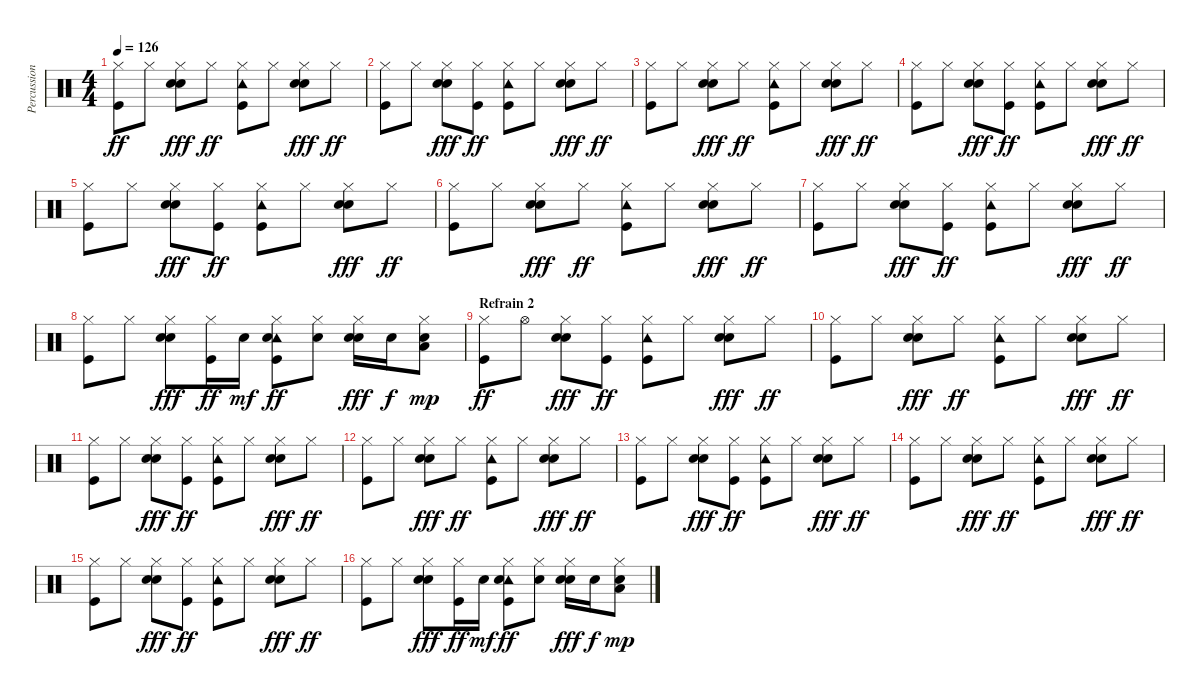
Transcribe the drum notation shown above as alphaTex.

\track ("Percussions" "Percussion") {instrument percussion}
\staff {score}
\articulation defaults
\ts (4 4)
\tempo 126
\clef neutral
\ks c
("Hi-Hat (closed)" "Kick (hit)").8{dy ff} "Hi-Hat (closed)".8 ("Hi-Hat (closed)" "Hand Clap (hit)" "Electric Snare (hit)").8{dy fff} "Hi-Hat (closed)".8{dy ff} ("Hi-Hat (closed)" "Tambourine (hit)" "Kick (hit)").8 "Hi-Hat (closed)".8 ("Hi-Hat (closed)" "Hand Clap (hit)" "Electric Snare (hit)").8{dy fff} "Hi-Hat (closed)".8{dy ff} |
("Hi-Hat (closed)" "Kick (hit)").8 "Hi-Hat (closed)".8 ("Hi-Hat (closed)" "Hand Clap (hit)" "Electric Snare (hit)").8{dy fff} ("Hi-Hat (closed)" "Kick (hit)").8{dy ff} ("Hi-Hat (closed)" "Tambourine (hit)" "Kick (hit)").8 "Hi-Hat (closed)".8 ("Hi-Hat (closed)" "Hand Clap (hit)" "Electric Snare (hit)").8{dy fff} "Hi-Hat (closed)".8{dy ff} |
("Hi-Hat (closed)" "Kick (hit)").8 "Hi-Hat (closed)".8 ("Hi-Hat (closed)" "Hand Clap (hit)" "Electric Snare (hit)").8{dy fff} "Hi-Hat (closed)".8{dy ff} ("Hi-Hat (closed)" "Tambourine (hit)" "Kick (hit)").8 "Hi-Hat (closed)".8 ("Hi-Hat (closed)" "Hand Clap (hit)" "Electric Snare (hit)").8{dy fff} "Hi-Hat (closed)".8{dy ff} |
("Hi-Hat (closed)" "Kick (hit)").8 "Hi-Hat (closed)".8 ("Hi-Hat (closed)" "Hand Clap (hit)" "Electric Snare (hit)").8{dy fff} ("Hi-Hat (closed)" "Kick (hit)").8{dy ff} ("Hi-Hat (closed)" "Tambourine (hit)" "Kick (hit)").8 "Hi-Hat (closed)".8 ("Hi-Hat (closed)" "Hand Clap (hit)" "Electric Snare (hit)").8{dy fff} "Hi-Hat (closed)".8{dy ff} |
("Hi-Hat (closed)" "Kick (hit)").8 "Hi-Hat (closed)".8 ("Hi-Hat (closed)" "Hand Clap (hit)" "Electric Snare (hit)").8{dy fff} ("Hi-Hat (closed)" "Kick (hit)").8{dy ff} ("Hi-Hat (closed)" "Tambourine (hit)" "Kick (hit)").8 "Hi-Hat (closed)".8 ("Hi-Hat (closed)" "Hand Clap (hit)" "Electric Snare (hit)").8{dy fff} "Hi-Hat (closed)".8{dy ff} |
("Hi-Hat (closed)" "Kick (hit)").8 "Hi-Hat (closed)".8 ("Hi-Hat (closed)" "Hand Clap (hit)" "Electric Snare (hit)").8{dy fff} "Hi-Hat (closed)".8{dy ff} ("Hi-Hat (closed)" "Tambourine (hit)" "Kick (hit)").8 "Hi-Hat (closed)".8 ("Hi-Hat (closed)" "Hand Clap (hit)" "Electric Snare (hit)").8{dy fff} "Hi-Hat (closed)".8{dy ff} |
("Hi-Hat (closed)" "Kick (hit)").8 "Hi-Hat (closed)".8 ("Hi-Hat (closed)" "Hand Clap (hit)" "Electric Snare (hit)").8{dy fff} ("Hi-Hat (closed)" "Kick (hit)").8{dy ff} ("Hi-Hat (closed)" "Tambourine (hit)" "Kick (hit)").8 "Hi-Hat (closed)".8 ("Hi-Hat (closed)" "Hand Clap (hit)" "Electric Snare (hit)").8{dy fff} "Hi-Hat (closed)".8{dy ff} |
("Hi-Hat (closed)" "Kick (hit)").8 "Hi-Hat (closed)".8 ("Hi-Hat (closed)" "Hand Clap (hit)" "Electric Snare (hit)").8{dy fff} ("Hi-Hat (closed)" "Kick (hit)").16{dy ff} "Electric Snare (hit)".16{dy mf} ("Hi-Hat (closed)" "Tambourine (hit)" "Electric Snare (hit)" "Kick (hit)").8{dy ff} ("Hi-Hat (closed)" "Electric Snare (hit)").8 ("Hi-Hat (closed)" "Hand Clap (hit)" "Electric Snare (hit)").16{dy fff} "Electric Snare (hit)".16{dy f} ("Hi-Hat (closed)" "Low Tom (hit)" "Electric Snare (hit)").8{dy mp} |
\section ("" "Refrain 2")
("Hi-Hat (closed)" "Kick (hit)").8{dy ff} "Hi-Hat (open)".8 ("Hi-Hat (closed)" "Hand Clap (hit)" "Electric Snare (hit)").8{dy fff} ("Hi-Hat (closed)" "Kick (hit)").8{dy ff} ("Hi-Hat (closed)" "Tambourine (hit)" "Kick (hit)").8 "Hi-Hat (closed)".8 ("Hi-Hat (closed)" "Hand Clap (hit)" "Electric Snare (hit)").8{dy fff} "Hi-Hat (closed)".8{dy ff} |
("Hi-Hat (closed)" "Kick (hit)").8 "Hi-Hat (closed)".8 ("Hi-Hat (closed)" "Hand Clap (hit)" "Electric Snare (hit)").8{dy fff} "Hi-Hat (closed)".8{dy ff} ("Hi-Hat (closed)" "Tambourine (hit)" "Kick (hit)").8 "Hi-Hat (closed)".8 ("Hi-Hat (closed)" "Hand Clap (hit)" "Electric Snare (hit)").8{dy fff} "Hi-Hat (closed)".8{dy ff} |
("Hi-Hat (closed)" "Kick (hit)").8 "Hi-Hat (closed)".8 ("Hi-Hat (closed)" "Hand Clap (hit)" "Electric Snare (hit)").8{dy fff} ("Hi-Hat (closed)" "Kick (hit)").8{dy ff} ("Hi-Hat (closed)" "Tambourine (hit)" "Kick (hit)").8 "Hi-Hat (closed)".8 ("Hi-Hat (closed)" "Hand Clap (hit)" "Electric Snare (hit)").8{dy fff} "Hi-Hat (closed)".8{dy ff} |
("Hi-Hat (closed)" "Kick (hit)").8 "Hi-Hat (closed)".8 ("Hi-Hat (closed)" "Hand Clap (hit)" "Electric Snare (hit)").8{dy fff} "Hi-Hat (closed)".8{dy ff} ("Hi-Hat (closed)" "Tambourine (hit)" "Kick (hit)").8 "Hi-Hat (closed)".8 ("Hi-Hat (closed)" "Hand Clap (hit)" "Electric Snare (hit)").8{dy fff} "Hi-Hat (closed)".8{dy ff} |
("Hi-Hat (closed)" "Kick (hit)").8 "Hi-Hat (closed)".8 ("Hi-Hat (closed)" "Hand Clap (hit)" "Electric Snare (hit)").8{dy fff} ("Hi-Hat (closed)" "Kick (hit)").8{dy ff} ("Hi-Hat (closed)" "Tambourine (hit)" "Kick (hit)").8 "Hi-Hat (closed)".8 ("Hi-Hat (closed)" "Hand Clap (hit)" "Electric Snare (hit)").8{dy fff} "Hi-Hat (closed)".8{dy ff} |
("Hi-Hat (closed)" "Kick (hit)").8 "Hi-Hat (closed)".8 ("Hi-Hat (closed)" "Hand Clap (hit)" "Electric Snare (hit)").8{dy fff} "Hi-Hat (closed)".8{dy ff} ("Hi-Hat (closed)" "Tambourine (hit)" "Kick (hit)").8 "Hi-Hat (closed)".8 ("Hi-Hat (closed)" "Hand Clap (hit)" "Electric Snare (hit)").8{dy fff} "Hi-Hat (closed)".8{dy ff} |
("Hi-Hat (closed)" "Kick (hit)").8 "Hi-Hat (closed)".8 ("Hi-Hat (closed)" "Hand Clap (hit)" "Electric Snare (hit)").8{dy fff} ("Hi-Hat (closed)" "Kick (hit)").8{dy ff} ("Hi-Hat (closed)" "Tambourine (hit)" "Kick (hit)").8 "Hi-Hat (closed)".8 ("Hi-Hat (closed)" "Hand Clap (hit)" "Electric Snare (hit)").8{dy fff} "Hi-Hat (closed)".8{dy ff} |
("Hi-Hat (closed)" "Kick (hit)").8 "Hi-Hat (closed)".8 ("Hi-Hat (closed)" "Hand Clap (hit)" "Electric Snare (hit)").8{dy fff} ("Hi-Hat (closed)" "Kick (hit)").16{dy ff} "Electric Snare (hit)".16{dy mf} ("Hi-Hat (closed)" "Tambourine (hit)" "Electric Snare (hit)" "Kick (hit)").8{dy ff} ("Hi-Hat (closed)" "Electric Snare (hit)").8 ("Hi-Hat (closed)" "Hand Clap (hit)" "Electric Snare (hit)").16{dy fff} "Electric Snare (hit)".16{dy f} ("Hi-Hat (closed)" "Low Tom (hit)" "Electric Snare (hit)").8{dy mp}
